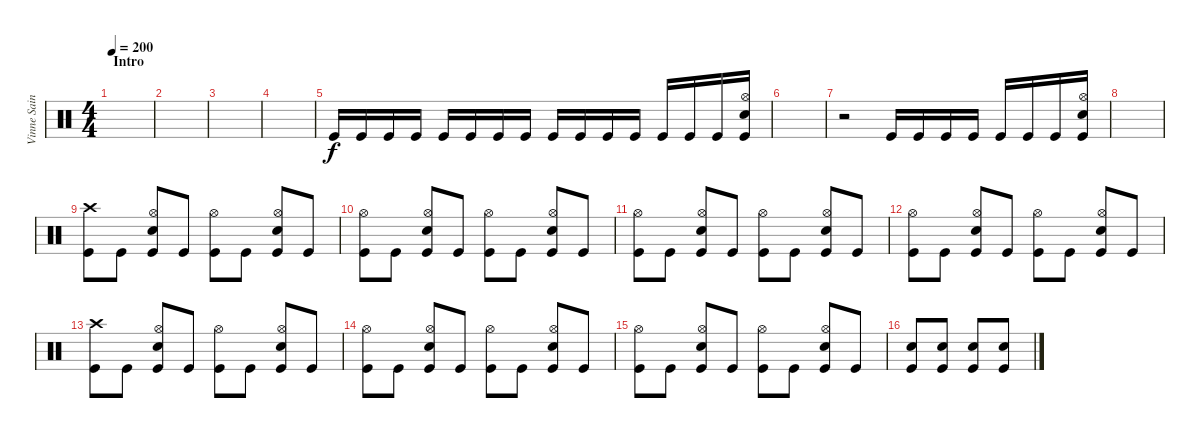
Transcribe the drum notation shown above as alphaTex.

\track ("Vinne Saint James" "Vinne Sain") {instrument percussion}
\staff {score}
\articulation defaults
\ts (4 4)
\section ("" "Intro")
\tempo 200
\clef neutral
\ks c
|
|
|
|
"Kick (hit)".16 "Kick (hit)".16 "Kick (hit)".16 "Kick (hit)".16 "Kick (hit)".16 "Kick (hit)".16 "Kick (hit)".16 "Kick (hit)".16 "Kick (hit)".16 "Kick (hit)".16 "Kick (hit)".16 "Kick (hit)".16 "Kick (hit)".16 "Kick (hit)".16 "Kick (hit)".16 ("Hi-Hat (open)" "Electric Snare (hit)" "Kick (hit)").16 |
|
r.2 "Kick (hit)".16 "Kick (hit)".16 "Kick (hit)".16 "Kick (hit)".16 "Kick (hit)".16 "Kick (hit)".16 "Kick (hit)".16 ("Hi-Hat (open)" "Electric Snare (hit)" "Kick (hit)").16 |
|
("Crash high (hit)" "Kick (hit)").8 "Kick (hit)".8 ("Hi-Hat (open)" "Electric Snare (hit)" "Kick (hit)").8 "Kick (hit)".8 ("Hi-Hat (open)" "Kick (hit)").8 "Kick (hit)".8 ("Hi-Hat (open)" "Electric Snare (hit)" "Kick (hit)").8 "Kick (hit)".8 |
("Hi-Hat (open)" "Kick (hit)").8 "Kick (hit)".8 ("Hi-Hat (open)" "Electric Snare (hit)" "Kick (hit)").8 "Kick (hit)".8 ("Hi-Hat (open)" "Kick (hit)").8 "Kick (hit)".8 ("Hi-Hat (open)" "Electric Snare (hit)" "Kick (hit)").8 "Kick (hit)".8 |
("Hi-Hat (open)" "Kick (hit)").8 "Kick (hit)".8 ("Hi-Hat (open)" "Electric Snare (hit)" "Kick (hit)").8 "Kick (hit)".8 ("Hi-Hat (open)" "Kick (hit)").8 "Kick (hit)".8 ("Hi-Hat (open)" "Electric Snare (hit)" "Kick (hit)").8 "Kick (hit)".8 |
("Hi-Hat (open)" "Kick (hit)").8 "Kick (hit)".8 ("Hi-Hat (open)" "Electric Snare (hit)" "Kick (hit)").8 "Kick (hit)".8 ("Hi-Hat (open)" "Kick (hit)").8 "Kick (hit)".8 ("Hi-Hat (open)" "Electric Snare (hit)" "Kick (hit)").8 "Kick (hit)".8 |
("Crash high (hit)" "Kick (hit)").8 "Kick (hit)".8 ("Hi-Hat (open)" "Electric Snare (hit)" "Kick (hit)").8 "Kick (hit)".8 ("Hi-Hat (open)" "Kick (hit)").8 "Kick (hit)".8 ("Hi-Hat (open)" "Electric Snare (hit)" "Kick (hit)").8 "Kick (hit)".8 |
("Hi-Hat (open)" "Kick (hit)").8 "Kick (hit)".8 ("Hi-Hat (open)" "Electric Snare (hit)" "Kick (hit)").8 "Kick (hit)".8 ("Hi-Hat (open)" "Kick (hit)").8 "Kick (hit)".8 ("Hi-Hat (open)" "Electric Snare (hit)" "Kick (hit)").8 "Kick (hit)".8 |
("Hi-Hat (open)" "Kick (hit)").8 "Kick (hit)".8 ("Hi-Hat (open)" "Electric Snare (hit)" "Kick (hit)").8 "Kick (hit)".8 ("Hi-Hat (open)" "Kick (hit)").8 "Kick (hit)".8 ("Hi-Hat (open)" "Electric Snare (hit)" "Kick (hit)").8 "Kick (hit)".8 |
("Electric Snare (hit)" "Kick (hit)").8 ("Electric Snare (hit)" "Kick (hit)").8 ("Electric Snare (hit)" "Kick (hit)").8 ("Electric Snare (hit)" "Kick (hit)").8
